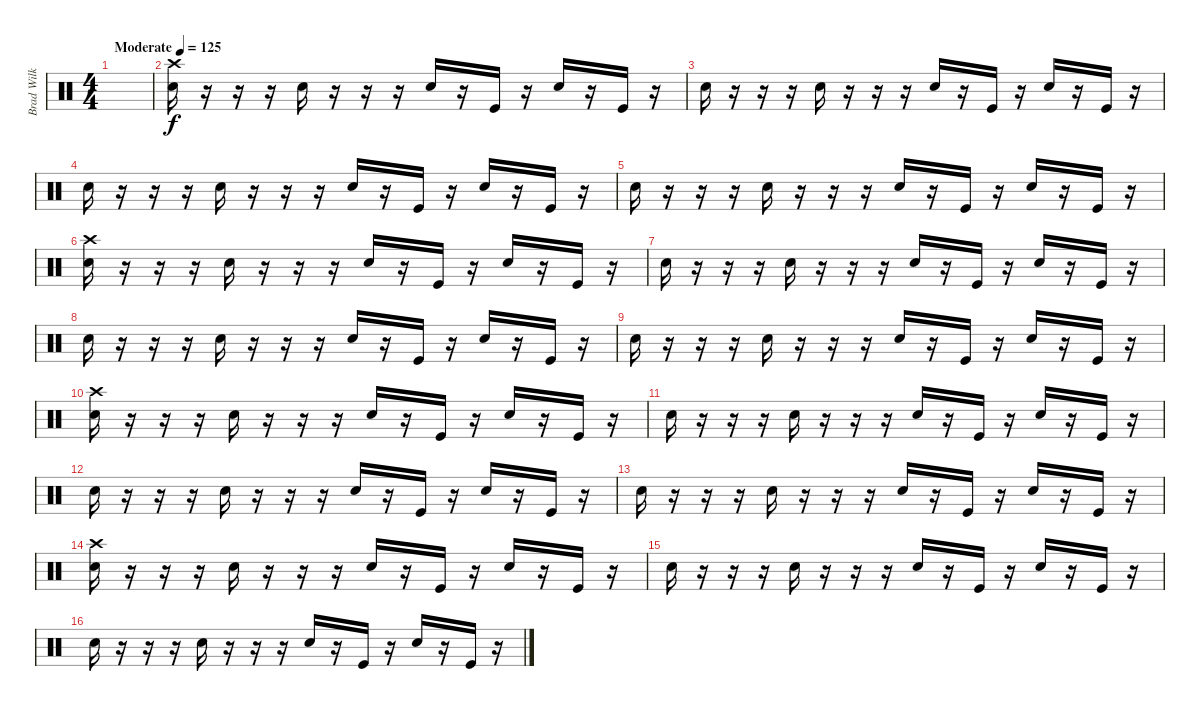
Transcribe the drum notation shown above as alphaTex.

\track ("Brad Wilk - Drums" "Brad Wilk ") {instrument percussion}
\staff {score}
\articulation defaults
\ts (4 4)
\tempo (125 "Moderate")
\clef neutral
\ks c
|
("Crash high (hit)" "Snare (hit) 2").16 r.16 r.16 r.16 "Snare (hit) 2".16 r.16 r.16 r.16 "Snare (hit) 2".16 r.16 "Kick (hit)".16 r.16 "Snare (hit) 2".16 r.16 "Kick (hit)".16 r.16 |
"Snare (hit) 2".16 r.16 r.16 r.16 "Snare (hit) 2".16 r.16 r.16 r.16 "Snare (hit) 2".16 r.16 "Kick (hit)".16 r.16 "Snare (hit) 2".16 r.16 "Kick (hit)".16 r.16 |
"Snare (hit) 2".16 r.16 r.16 r.16 "Snare (hit) 2".16 r.16 r.16 r.16 "Snare (hit) 2".16 r.16 "Kick (hit)".16 r.16 "Snare (hit) 2".16 r.16 "Kick (hit)".16 r.16 |
"Snare (hit) 2".16 r.16 r.16 r.16 "Snare (hit) 2".16 r.16 r.16 r.16 "Snare (hit) 2".16 r.16 "Kick (hit)".16 r.16 "Snare (hit) 2".16 r.16 "Kick (hit)".16 r.16 |
("Crash high (hit)" "Snare (hit) 2").16 r.16 r.16 r.16 "Snare (hit) 2".16 r.16 r.16 r.16 "Snare (hit) 2".16 r.16 "Kick (hit)".16 r.16 "Snare (hit) 2".16 r.16 "Kick (hit)".16 r.16 |
"Snare (hit) 2".16 r.16 r.16 r.16 "Snare (hit) 2".16 r.16 r.16 r.16 "Snare (hit) 2".16 r.16 "Kick (hit)".16 r.16 "Snare (hit) 2".16 r.16 "Kick (hit)".16 r.16 |
"Snare (hit) 2".16 r.16 r.16 r.16 "Snare (hit) 2".16 r.16 r.16 r.16 "Snare (hit) 2".16 r.16 "Kick (hit)".16 r.16 "Snare (hit) 2".16 r.16 "Kick (hit)".16 r.16 |
"Snare (hit) 2".16 r.16 r.16 r.16 "Snare (hit) 2".16 r.16 r.16 r.16 "Snare (hit) 2".16 r.16 "Kick (hit)".16 r.16 "Snare (hit) 2".16 r.16 "Kick (hit)".16 r.16 |
("Crash high (hit)" "Snare (hit) 2").16 r.16 r.16 r.16 "Snare (hit) 2".16 r.16 r.16 r.16 "Snare (hit) 2".16 r.16 "Kick (hit)".16 r.16 "Snare (hit) 2".16 r.16 "Kick (hit)".16 r.16 |
"Snare (hit) 2".16 r.16 r.16 r.16 "Snare (hit) 2".16 r.16 r.16 r.16 "Snare (hit) 2".16 r.16 "Kick (hit)".16 r.16 "Snare (hit) 2".16 r.16 "Kick (hit)".16 r.16 |
"Snare (hit) 2".16 r.16 r.16 r.16 "Snare (hit) 2".16 r.16 r.16 r.16 "Snare (hit) 2".16 r.16 "Kick (hit)".16 r.16 "Snare (hit) 2".16 r.16 "Kick (hit)".16 r.16 |
"Snare (hit) 2".16 r.16 r.16 r.16 "Snare (hit) 2".16 r.16 r.16 r.16 "Snare (hit) 2".16 r.16 "Kick (hit)".16 r.16 "Snare (hit) 2".16 r.16 "Kick (hit)".16 r.16 |
("Crash high (hit)" "Snare (hit) 2").16 r.16 r.16 r.16 "Snare (hit) 2".16 r.16 r.16 r.16 "Snare (hit) 2".16 r.16 "Kick (hit)".16 r.16 "Snare (hit) 2".16 r.16 "Kick (hit)".16 r.16 |
"Snare (hit) 2".16 r.16 r.16 r.16 "Snare (hit) 2".16 r.16 r.16 r.16 "Snare (hit) 2".16 r.16 "Kick (hit)".16 r.16 "Snare (hit) 2".16 r.16 "Kick (hit)".16 r.16 |
"Snare (hit) 2".16 r.16 r.16 r.16 "Snare (hit) 2".16 r.16 r.16 r.16 "Snare (hit) 2".16 r.16 "Kick (hit)".16 r.16 "Snare (hit) 2".16 r.16 "Kick (hit)".16 r.16
